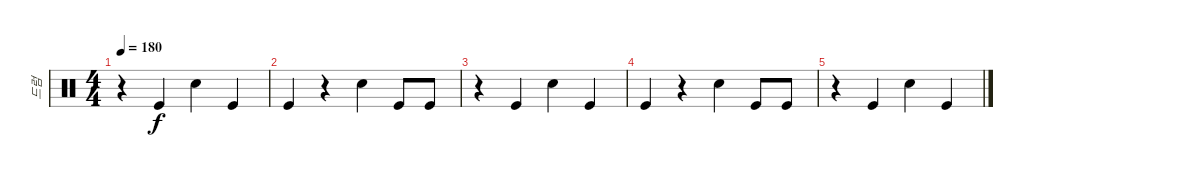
\track ("드럼" "드럼") {instrument percussion}
\staff {score}
\articulation defaults
\ts (4 4)
\tempo 180
\clef neutral
\ks c
r.4{dy f} "Kick (hit)".4 "Snare (hit) 2".4 "Kick (hit)".4 |
"Kick (hit)".4 r.4 "Snare (hit) 2".4 "Kick (hit)".8 "Kick (hit)".8 |
r.4 "Kick (hit)".4 "Snare (hit) 2".4 "Kick (hit)".4 |
"Kick (hit)".4 r.4 "Snare (hit) 2".4 "Kick (hit)".8 "Kick (hit)".8 |
r.4 "Kick (hit)".4 "Snare (hit) 2".4 "Kick (hit)".4
